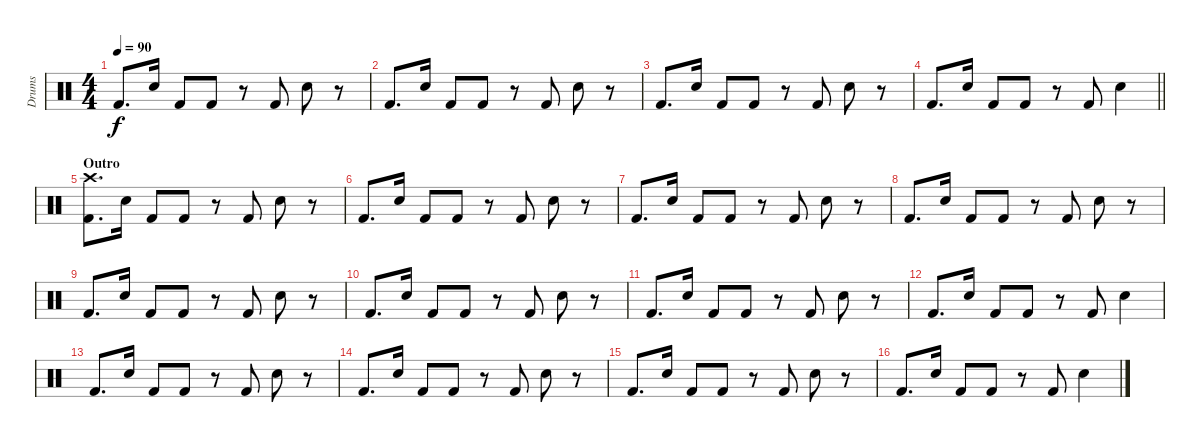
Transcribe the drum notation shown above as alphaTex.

\track ("Drums" "Drums") {instrument percussion}
\staff {score}
\articulation defaults
\ts (4 4)
\tempo 90
\clef neutral
\ks c "Kick (hit) 2".8{d dy f} "Hand Clap (hit)".16 "Kick (hit) 2".8 "Kick (hit) 2".8
r.8 "Kick (hit) 2".8 "Hand Clap (hit)".8 r.8 |
"Kick (hit) 2".8{d} "Hand Clap (hit)".16 "Kick (hit) 2".8 "Kick (hit) 2".8 r.8 "Kick (hit) 2".8 "Hand Clap (hit)".8 r.8 |
"Kick (hit) 2".8{d} "Hand Clap (hit)".16 "Kick (hit) 2".8 "Kick (hit) 2".8 r.8 "Kick (hit) 2".8 "Hand Clap (hit)".8 r.8 |
\barLineRight lightlight "Kick (hit) 2".8{d} "Hand Clap (hit)".16 "Kick (hit) 2".8 "Kick (hit) 2".8
r.8 "Kick (hit) 2".8 "Hand Clap (hit)".4 |
\section ("" "Outro")
("Kick (hit) 2" "Crash high (hit)").8{d} "Hand Clap (hit)".16 "Kick (hit) 2".8 "Kick (hit) 2".8 r.8 "Kick (hit) 2".8 "Hand Clap (hit)".8 r.8 |
"Kick (hit) 2".8{d} "Hand Clap (hit)".16 "Kick (hit) 2".8 "Kick (hit) 2".8 r.8 "Kick (hit) 2".8 "Hand Clap (hit)".8 r.8 |
"Kick (hit) 2".8{d} "Hand Clap (hit)".16 "Kick (hit) 2".8 "Kick (hit) 2".8 r.8 "Kick (hit) 2".8 "Hand Clap (hit)".8 r.8 |
"Kick (hit) 2".8{d} "Hand Clap (hit)".16 "Kick (hit) 2".8 "Kick (hit) 2".8 r.8 "Kick (hit) 2".8 "Hand Clap (hit)".8 r.8 |
"Kick (hit) 2".8{d} "Hand Clap (hit)".16 "Kick (hit) 2".8 "Kick (hit) 2".8 r.8 "Kick (hit) 2".8 "Hand Clap (hit)".8 r.8 |
"Kick (hit) 2".8{d} "Hand Clap (hit)".16 "Kick (hit) 2".8 "Kick (hit) 2".8 r.8 "Kick (hit) 2".8 "Hand Clap (hit)".8 r.8 |
"Kick (hit) 2".8{d} "Hand Clap (hit)".16 "Kick (hit) 2".8 "Kick (hit) 2".8 r.8 "Kick (hit) 2".8 "Hand Clap (hit)".8 r.8 |
"Kick (hit) 2".8{d} "Hand Clap (hit)".16 "Kick (hit) 2".8 "Kick (hit) 2".8 r.8 "Kick (hit) 2".8 "Hand Clap (hit)".4 |
"Kick (hit) 2".8{d} "Hand Clap (hit)".16 "Kick (hit) 2".8 "Kick (hit) 2".8 r.8 "Kick (hit) 2".8 "Hand Clap (hit)".8 r.8 |
"Kick (hit) 2".8{d} "Hand Clap (hit)".16 "Kick (hit) 2".8 "Kick (hit) 2".8 r.8 "Kick (hit) 2".8 "Hand Clap (hit)".8 r.8 |
"Kick (hit) 2".8{d} "Hand Clap (hit)".16 "Kick (hit) 2".8 "Kick (hit) 2".8 r.8 "Kick (hit) 2".8 "Hand Clap (hit)".8 r.8 |
"Kick (hit) 2".8{d} "Hand Clap (hit)".16 "Kick (hit) 2".8 "Kick (hit) 2".8 r.8 "Kick (hit) 2".8 "Hand Clap (hit)".4
